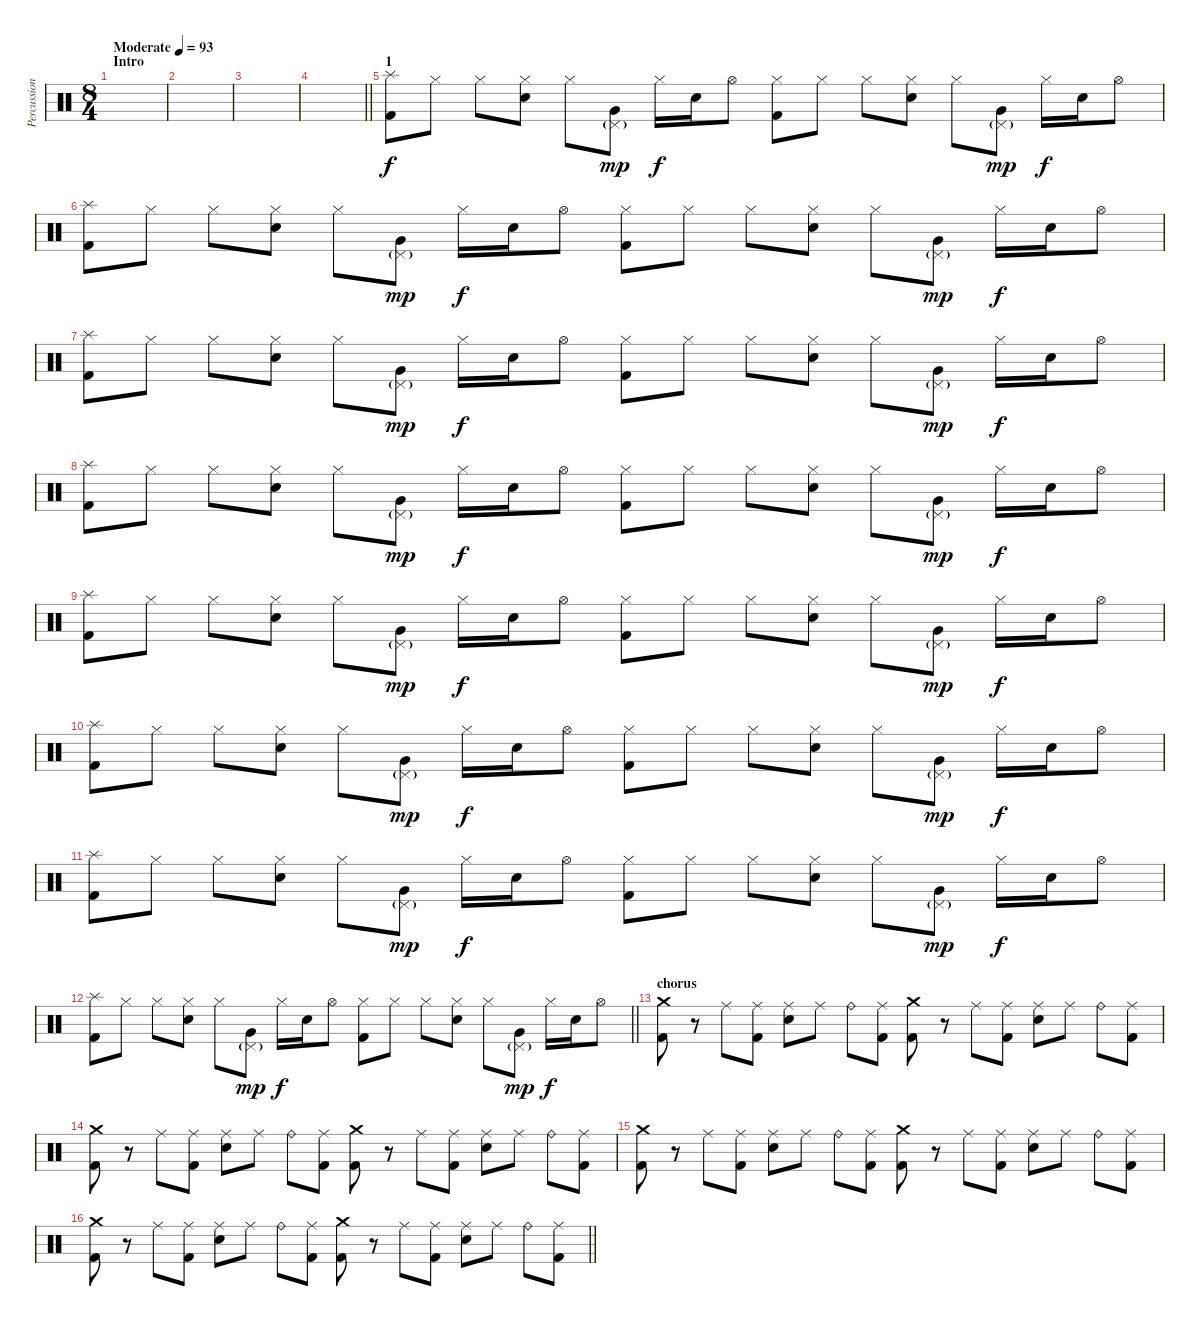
\track ("Percussioni" "Percussion") {instrument percussion}
\staff {score}
\articulation defaults
\ts (8 4)
\section ("" "Intro")
\tempo (93 "Moderate")
\clef neutral
\ks c
|
|
|
\barLineRight lightlight
|
\section ("" "1")
("Splash (hit)" "Kick (hit) 2").8 "Hi-Hat (closed)".8 "Hi-Hat (closed)".8 ("Electric Snare (hit)" "Hi-Hat (closed)").8 "Hi-Hat (closed)".8 ("Very Low Tom (hit)" "Pedal Hi-Hat (hit)"{g}).8{dy mp} "Hi-Hat (closed)".16{dy f} "Electric Snare (hit)".16 "Hi-Hat (open)".8 ("Kick (hit) 2" "Hi-Hat (closed)").8 "Hi-Hat (closed)".8 "Hi-Hat (closed)".8 ("Electric Snare (hit)" "Hi-Hat (closed)").8 "Hi-Hat (closed)".8 ("Very Low Tom (hit)" "Pedal Hi-Hat (hit)"{g}).8{dy mp} "Hi-Hat (closed)".16{dy f} "Electric Snare (hit)".16 "Hi-Hat (open)".8 |
("Splash (hit)" "Kick (hit) 2").8 "Hi-Hat (closed)".8 "Hi-Hat (closed)".8 ("Electric Snare (hit)" "Hi-Hat (closed)").8 "Hi-Hat (closed)".8 ("Very Low Tom (hit)" "Pedal Hi-Hat (hit)"{g}).8{dy mp} "Hi-Hat (closed)".16{dy f} "Electric Snare (hit)".16 "Hi-Hat (open)".8 ("Kick (hit) 2" "Hi-Hat (closed)").8 "Hi-Hat (closed)".8 "Hi-Hat (closed)".8 ("Electric Snare (hit)" "Hi-Hat (closed)").8 "Hi-Hat (closed)".8 ("Very Low Tom (hit)" "Pedal Hi-Hat (hit)"{g}).8{dy mp} "Hi-Hat (closed)".16{dy f} "Electric Snare (hit)".16 "Hi-Hat (open)".8 |
("Splash (hit)" "Kick (hit) 2").8 "Hi-Hat (closed)".8 "Hi-Hat (closed)".8 ("Electric Snare (hit)" "Hi-Hat (closed)").8 "Hi-Hat (closed)".8 ("Very Low Tom (hit)" "Pedal Hi-Hat (hit)"{g}).8{dy mp} "Hi-Hat (closed)".16{dy f} "Electric Snare (hit)".16 "Hi-Hat (open)".8 ("Kick (hit) 2" "Hi-Hat (closed)").8 "Hi-Hat (closed)".8 "Hi-Hat (closed)".8 ("Electric Snare (hit)" "Hi-Hat (closed)").8 "Hi-Hat (closed)".8 ("Very Low Tom (hit)" "Pedal Hi-Hat (hit)"{g}).8{dy mp} "Hi-Hat (closed)".16{dy f} "Electric Snare (hit)".16 "Hi-Hat (open)".8 |
("Splash (hit)" "Kick (hit) 2").8 "Hi-Hat (closed)".8 "Hi-Hat (closed)".8 ("Electric Snare (hit)" "Hi-Hat (closed)").8 "Hi-Hat (closed)".8 ("Very Low Tom (hit)" "Pedal Hi-Hat (hit)"{g}).8{dy mp} "Hi-Hat (closed)".16{dy f} "Electric Snare (hit)".16 "Hi-Hat (open)".8 ("Kick (hit) 2" "Hi-Hat (closed)").8 "Hi-Hat (closed)".8 "Hi-Hat (closed)".8 ("Electric Snare (hit)" "Hi-Hat (closed)").8 "Hi-Hat (closed)".8 ("Very Low Tom (hit)" "Pedal Hi-Hat (hit)"{g}).8{dy mp} "Hi-Hat (closed)".16{dy f} "Electric Snare (hit)".16 "Hi-Hat (open)".8 |
("Splash (hit)" "Kick (hit) 2").8 "Hi-Hat (closed)".8 "Hi-Hat (closed)".8 ("Electric Snare (hit)" "Hi-Hat (closed)").8 "Hi-Hat (closed)".8 ("Very Low Tom (hit)" "Pedal Hi-Hat (hit)"{g}).8{dy mp} "Hi-Hat (closed)".16{dy f} "Electric Snare (hit)".16 "Hi-Hat (open)".8 ("Kick (hit) 2" "Hi-Hat (closed)").8 "Hi-Hat (closed)".8 "Hi-Hat (closed)".8 ("Electric Snare (hit)" "Hi-Hat (closed)").8 "Hi-Hat (closed)".8 ("Very Low Tom (hit)" "Pedal Hi-Hat (hit)"{g}).8{dy mp} "Hi-Hat (closed)".16{dy f} "Electric Snare (hit)".16 "Hi-Hat (open)".8 |
("Splash (hit)" "Kick (hit) 2").8 "Hi-Hat (closed)".8 "Hi-Hat (closed)".8 ("Electric Snare (hit)" "Hi-Hat (closed)").8 "Hi-Hat (closed)".8 ("Very Low Tom (hit)" "Pedal Hi-Hat (hit)"{g}).8{dy mp} "Hi-Hat (closed)".16{dy f} "Electric Snare (hit)".16 "Hi-Hat (open)".8 ("Kick (hit) 2" "Hi-Hat (closed)").8 "Hi-Hat (closed)".8 "Hi-Hat (closed)".8 ("Electric Snare (hit)" "Hi-Hat (closed)").8 "Hi-Hat (closed)".8 ("Very Low Tom (hit)" "Pedal Hi-Hat (hit)"{g}).8{dy mp} "Hi-Hat (closed)".16{dy f} "Electric Snare (hit)".16 "Hi-Hat (open)".8 |
("Splash (hit)" "Kick (hit) 2").8 "Hi-Hat (closed)".8 "Hi-Hat (closed)".8 ("Electric Snare (hit)" "Hi-Hat (closed)").8 "Hi-Hat (closed)".8 ("Very Low Tom (hit)" "Pedal Hi-Hat (hit)"{g}).8{dy mp} "Hi-Hat (closed)".16{dy f} "Electric Snare (hit)".16 "Hi-Hat (open)".8 ("Kick (hit) 2" "Hi-Hat (closed)").8 "Hi-Hat (closed)".8 "Hi-Hat (closed)".8 ("Electric Snare (hit)" "Hi-Hat (closed)").8 "Hi-Hat (closed)".8 ("Very Low Tom (hit)" "Pedal Hi-Hat (hit)"{g}).8{dy mp} "Hi-Hat (closed)".16{dy f} "Electric Snare (hit)".16 "Hi-Hat (open)".8 |
\barLineRight lightlight
("Splash (hit)" "Kick (hit) 2").8 "Hi-Hat (closed)".8 "Hi-Hat (closed)".8 ("Electric Snare (hit)" "Hi-Hat (closed)").8 "Hi-Hat (closed)".8 ("Very Low Tom (hit)" "Pedal Hi-Hat (hit)"{g}).8{dy mp} "Hi-Hat (closed)".16{dy f} "Electric Snare (hit)".16 "Hi-Hat (open)".8 ("Kick (hit) 2" "Hi-Hat (closed)").8 "Hi-Hat (closed)".8 "Hi-Hat (closed)".8 ("Electric Snare (hit)" "Hi-Hat (closed)").8 "Hi-Hat (closed)".8 ("Very Low Tom (hit)" "Pedal Hi-Hat (hit)"{g}).8{dy mp} "Hi-Hat (closed)".16{dy f} "Electric Snare (hit)".16 "Hi-Hat (open)".8 |
\section ("" "chorus")
("Kick (hit) 2" "Crash medium (hit)").8 r.8 "Ride (middle)".8 ("Kick (hit) 2" "Ride (middle)").8 ("Electric Snare (hit)" "Ride (middle)").8 "Ride (middle)".8 "Ride (bell)".8 ("Kick (hit) 2" "Ride (middle)").8 ("Kick (hit) 2" "Crash medium (hit)").8 r.8 "Ride (middle)".8 ("Kick (hit) 2" "Ride (middle)").8 ("Electric Snare (hit)" "Ride (middle)").8 "Ride (middle)".8 "Ride (bell)".8 ("Kick (hit) 2" "Ride (middle)").8 |
("Kick (hit) 2" "Crash medium (hit)").8 r.8 "Ride (middle)".8 ("Kick (hit) 2" "Ride (middle)").8 ("Electric Snare (hit)" "Ride (middle)").8 "Ride (middle)".8 "Ride (bell)".8 ("Kick (hit) 2" "Ride (middle)").8 ("Kick (hit) 2" "Crash medium (hit)").8 r.8 "Ride (middle)".8 ("Kick (hit) 2" "Ride (middle)").8 ("Electric Snare (hit)" "Ride (middle)").8 "Ride (middle)".8 "Ride (bell)".8 ("Kick (hit) 2" "Ride (middle)").8 |
("Kick (hit) 2" "Crash medium (hit)").8 r.8 "Ride (middle)".8 ("Kick (hit) 2" "Ride (middle)").8 ("Electric Snare (hit)" "Ride (middle)").8 "Ride (middle)".8 "Ride (bell)".8 ("Kick (hit) 2" "Ride (middle)").8 ("Kick (hit) 2" "Crash medium (hit)").8 r.8 "Ride (middle)".8 ("Kick (hit) 2" "Ride (middle)").8 ("Electric Snare (hit)" "Ride (middle)").8 "Ride (middle)".8 "Ride (bell)".8 ("Kick (hit) 2" "Ride (middle)").8 |
\barLineRight lightlight
("Kick (hit) 2" "Crash medium (hit)").8 r.8 "Ride (middle)".8 ("Kick (hit) 2" "Ride (middle)").8 ("Electric Snare (hit)" "Ride (middle)").8 "Ride (middle)".8 "Ride (bell)".8 ("Kick (hit) 2" "Ride (middle)").8 ("Kick (hit) 2" "Crash medium (hit)").8 r.8 "Ride (middle)".8 ("Kick (hit) 2" "Ride (middle)").8 ("Electric Snare (hit)" "Ride (middle)").8 "Ride (middle)".8 "Ride (bell)".8 ("Kick (hit) 2" "Ride (middle)").8
